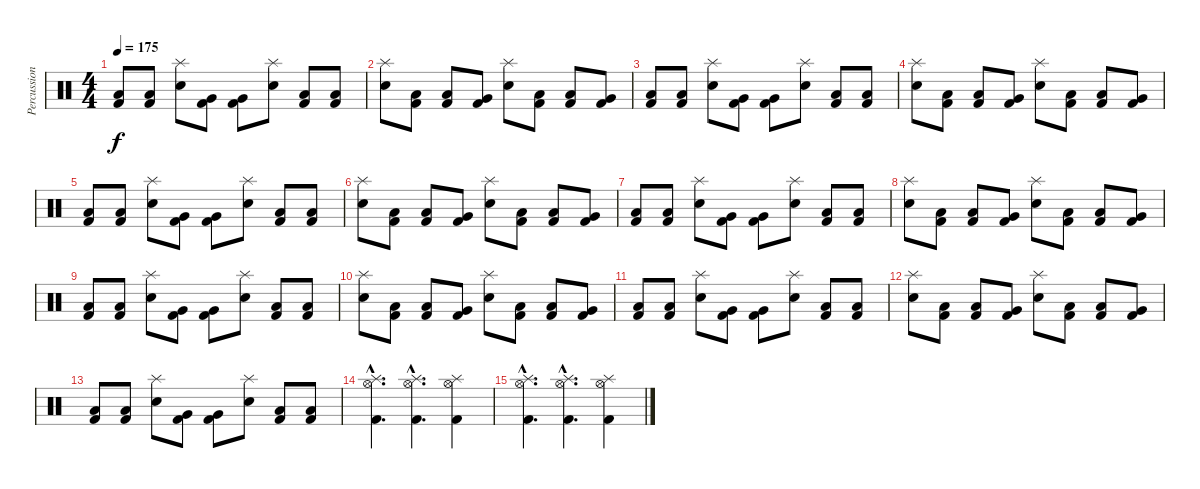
\track ("Percussions" "Percussion") {instrument percussion}
\staff {score}
\articulation defaults
\ts (4 4)
\tempo 175
\clef neutral
\ks c
("Low Tom (hit)" "Kick (hit) 2").8{dy f} ("Low Tom (hit)" "Kick (hit) 2").8 ("Splash (hit)" "Electric Snare (hit)").8 ("Very Low Tom (hit)" "Kick (hit) 2").8 ("Very Low Tom (hit)" "Kick (hit) 2").8 ("Splash (hit)" "Electric Snare (hit)").8 ("Low Floor Tom (hit)" "Kick (hit) 2").8 ("Low Floor Tom (hit)" "Kick (hit) 2").8 |
("Splash (hit)" "Electric Snare (hit)").8 ("Low Tom (hit)" "Kick (hit) 2").8 ("Low Tom (hit)" "Kick (hit) 2").8 ("Very Low Tom (hit)" "Kick (hit) 2").8 ("Splash (hit)" "Electric Snare (hit)").8 ("Low Tom (hit)" "Kick (hit) 2").8 ("Low Tom (hit)" "Kick (hit) 2").8 ("Very Low Tom (hit)" "Kick (hit) 2").8 |
("Low Tom (hit)" "Kick (hit) 2").8 ("Low Tom (hit)" "Kick (hit) 2").8 ("Splash (hit)" "Electric Snare (hit)").8 ("Very Low Tom (hit)" "Kick (hit) 2").8 ("Very Low Tom (hit)" "Kick (hit) 2").8 ("Splash (hit)" "Electric Snare (hit)").8 ("Low Floor Tom (hit)" "Kick (hit) 2").8 ("Low Floor Tom (hit)" "Kick (hit) 2").8 |
("Splash (hit)" "Electric Snare (hit)").8 ("Low Tom (hit)" "Kick (hit) 2").8 ("Low Tom (hit)" "Kick (hit) 2").8 ("Very Low Tom (hit)" "Kick (hit) 2").8 ("Splash (hit)" "Electric Snare (hit)").8 ("Low Tom (hit)" "Kick (hit) 2").8 ("Low Tom (hit)" "Kick (hit) 2").8 ("Very Low Tom (hit)" "Kick (hit) 2").8 |
("Low Tom (hit)" "Kick (hit) 2").8 ("Low Tom (hit)" "Kick (hit) 2").8 ("Splash (hit)" "Electric Snare (hit)").8 ("Very Low Tom (hit)" "Kick (hit) 2").8 ("Very Low Tom (hit)" "Kick (hit) 2").8 ("Splash (hit)" "Electric Snare (hit)").8 ("Low Floor Tom (hit)" "Kick (hit) 2").8 ("Low Floor Tom (hit)" "Kick (hit) 2").8 |
("Splash (hit)" "Electric Snare (hit)").8 ("Low Tom (hit)" "Kick (hit) 2").8 ("Low Tom (hit)" "Kick (hit) 2").8 ("Very Low Tom (hit)" "Kick (hit) 2").8 ("Splash (hit)" "Electric Snare (hit)").8 ("Low Tom (hit)" "Kick (hit) 2").8 ("Low Tom (hit)" "Kick (hit) 2").8 ("Very Low Tom (hit)" "Kick (hit) 2").8 |
("Low Tom (hit)" "Kick (hit) 2").8 ("Low Tom (hit)" "Kick (hit) 2").8 ("Splash (hit)" "Electric Snare (hit)").8 ("Very Low Tom (hit)" "Kick (hit) 2").8 ("Very Low Tom (hit)" "Kick (hit) 2").8 ("Splash (hit)" "Electric Snare (hit)").8 ("Low Floor Tom (hit)" "Kick (hit) 2").8 ("Low Floor Tom (hit)" "Kick (hit) 2").8 |
("Splash (hit)" "Electric Snare (hit)").8 ("Low Tom (hit)" "Kick (hit) 2").8 ("Low Tom (hit)" "Kick (hit) 2").8 ("Very Low Tom (hit)" "Kick (hit) 2").8 ("Splash (hit)" "Electric Snare (hit)").8 ("Low Tom (hit)" "Kick (hit) 2").8 ("Low Tom (hit)" "Kick (hit) 2").8 ("Very Low Tom (hit)" "Kick (hit) 2").8 |
("Low Tom (hit)" "Kick (hit) 2").8 ("Low Tom (hit)" "Kick (hit) 2").8 ("Splash (hit)" "Electric Snare (hit)").8 ("Very Low Tom (hit)" "Kick (hit) 2").8 ("Very Low Tom (hit)" "Kick (hit) 2").8 ("Splash (hit)" "Electric Snare (hit)").8 ("Low Floor Tom (hit)" "Kick (hit) 2").8 ("Low Floor Tom (hit)" "Kick (hit) 2").8 |
("Splash (hit)" "Electric Snare (hit)").8 ("Low Tom (hit)" "Kick (hit) 2").8 ("Low Tom (hit)" "Kick (hit) 2").8 ("Very Low Tom (hit)" "Kick (hit) 2").8 ("Splash (hit)" "Electric Snare (hit)").8 ("Low Tom (hit)" "Kick (hit) 2").8 ("Low Tom (hit)" "Kick (hit) 2").8 ("Very Low Tom (hit)" "Kick (hit) 2").8 |
("Low Tom (hit)" "Kick (hit) 2").8 ("Low Tom (hit)" "Kick (hit) 2").8 ("Splash (hit)" "Electric Snare (hit)").8 ("Very Low Tom (hit)" "Kick (hit) 2").8 ("Very Low Tom (hit)" "Kick (hit) 2").8 ("Splash (hit)" "Electric Snare (hit)").8 ("Low Floor Tom (hit)" "Kick (hit) 2").8 ("Low Floor Tom (hit)" "Kick (hit) 2").8 |
("Splash (hit)" "Electric Snare (hit)").8 ("Low Tom (hit)" "Kick (hit) 2").8 ("Low Tom (hit)" "Kick (hit) 2").8 ("Very Low Tom (hit)" "Kick (hit) 2").8 ("Splash (hit)" "Electric Snare (hit)").8 ("Low Tom (hit)" "Kick (hit) 2").8 ("Low Tom (hit)" "Kick (hit) 2").8 ("Very Low Tom (hit)" "Kick (hit) 2").8 |
("Low Tom (hit)" "Kick (hit) 2").8 ("Low Tom (hit)" "Kick (hit) 2").8 ("Splash (hit)" "Electric Snare (hit)").8 ("Very Low Tom (hit)" "Kick (hit) 2").8 ("Very Low Tom (hit)" "Kick (hit) 2").8 ("Splash (hit)" "Electric Snare (hit)").8 ("Low Floor Tom (hit)" "Kick (hit) 2").8 ("Low Floor Tom (hit)" "Kick (hit) 2").8 |
("Hi-Hat (open)"{hac} "Splash (hit)"{hac} "Kick (hit) 2"{hac}).4{d} ("Hi-Hat (open)"{hac} "Splash (hit)"{hac} "Kick (hit) 2"{hac}).4{d} ("Hi-Hat (open)" "Splash (hit)" "Kick (hit) 2").4 |
("Hi-Hat (open)"{hac} "Splash (hit)"{hac} "Kick (hit) 2"{hac}).4{d} ("Hi-Hat (open)"{hac} "Splash (hit)"{hac} "Kick (hit) 2"{hac}).4{d} ("Hi-Hat (open)" "Splash (hit)" "Kick (hit) 2").4
